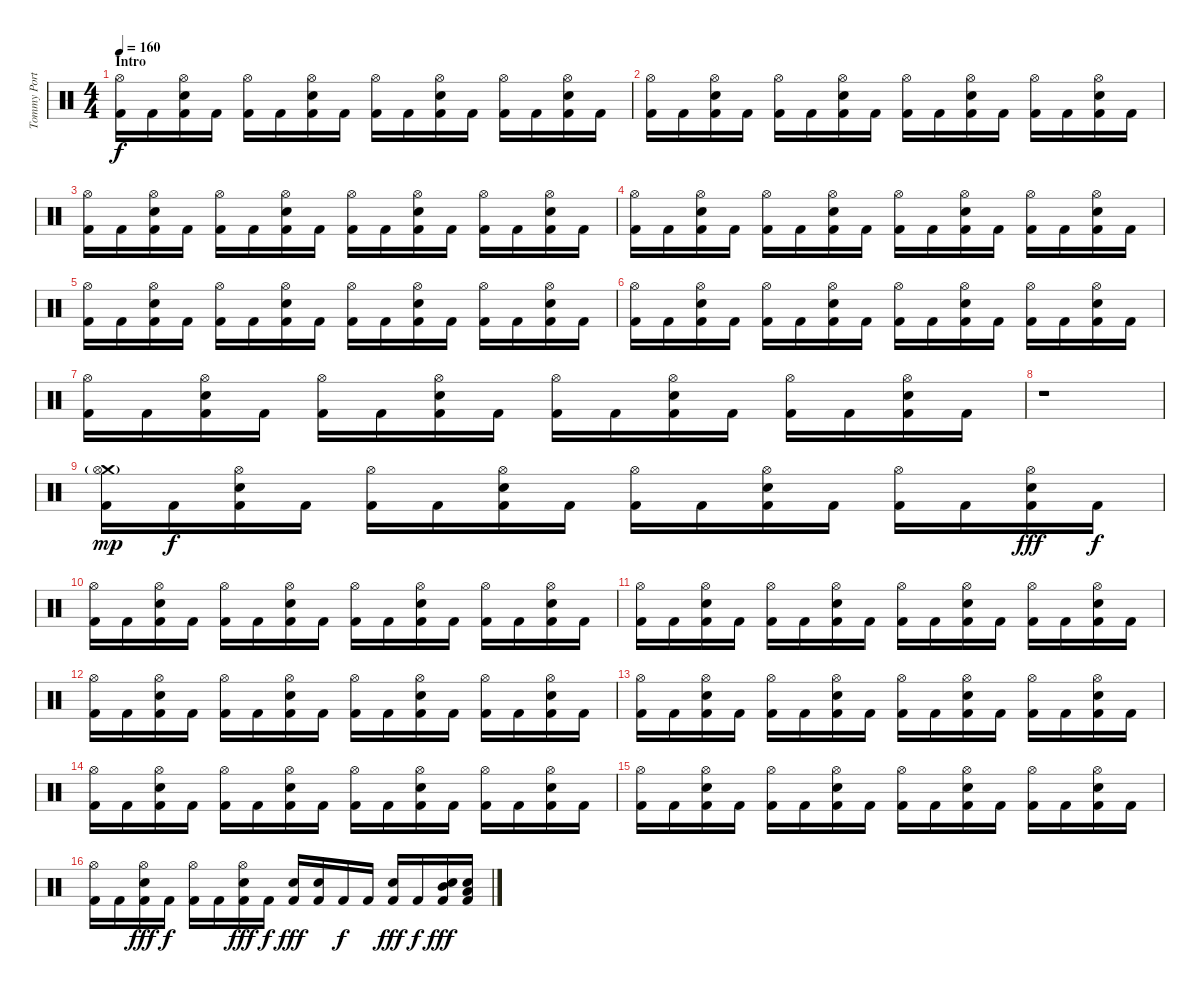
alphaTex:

\track ("Tommy Portino" "Tommy Port") {instrument percussion}
\staff {score}
\articulation defaults
\ts (4 4)
\section ("" "Intro")
\tempo 160
\clef neutral
\ks c
("Hi-Hat (open)" "Kick (hit) 2").16{dy f} "Kick (hit) 2".16 ("Hi-Hat (open)" "Snare (hit) 2" "Kick (hit) 2").16 "Kick (hit) 2".16 ("Hi-Hat (open)" "Kick (hit) 2").16 "Kick (hit) 2".16 ("Hi-Hat (open)" "Snare (hit) 2" "Kick (hit) 2").16 "Kick (hit) 2".16 ("Hi-Hat (open)" "Kick (hit) 2").16 "Kick (hit) 2".16 ("Hi-Hat (open)" "Snare (hit) 2" "Kick (hit) 2").16 "Kick (hit) 2".16 ("Hi-Hat (open)" "Kick (hit) 2").16 "Kick (hit) 2".16 ("Hi-Hat (open)" "Snare (hit) 2" "Kick (hit) 2").16 "Kick (hit) 2".16 |
("Hi-Hat (open)" "Kick (hit) 2").16 "Kick (hit) 2".16 ("Hi-Hat (open)" "Snare (hit) 2" "Kick (hit) 2").16 "Kick (hit) 2".16 ("Hi-Hat (open)" "Kick (hit) 2").16 "Kick (hit) 2".16 ("Hi-Hat (open)" "Snare (hit) 2" "Kick (hit) 2").16 "Kick (hit) 2".16 ("Hi-Hat (open)" "Kick (hit) 2").16 "Kick (hit) 2".16 ("Hi-Hat (open)" "Snare (hit) 2" "Kick (hit) 2").16 "Kick (hit) 2".16 ("Hi-Hat (open)" "Kick (hit) 2").16 "Kick (hit) 2".16 ("Hi-Hat (open)" "Snare (hit) 2" "Kick (hit) 2").16 "Kick (hit) 2".16 |
("Hi-Hat (open)" "Kick (hit) 2").16 "Kick (hit) 2".16 ("Hi-Hat (open)" "Snare (hit) 2" "Kick (hit) 2").16 "Kick (hit) 2".16 ("Hi-Hat (open)" "Kick (hit) 2").16 "Kick (hit) 2".16 ("Hi-Hat (open)" "Snare (hit) 2" "Kick (hit) 2").16 "Kick (hit) 2".16 ("Hi-Hat (open)" "Kick (hit) 2").16 "Kick (hit) 2".16 ("Hi-Hat (open)" "Snare (hit) 2" "Kick (hit) 2").16 "Kick (hit) 2".16 ("Hi-Hat (open)" "Kick (hit) 2").16 "Kick (hit) 2".16 ("Hi-Hat (open)" "Snare (hit) 2" "Kick (hit) 2").16 "Kick (hit) 2".16 |
("Hi-Hat (open)" "Kick (hit) 2").16 "Kick (hit) 2".16 ("Hi-Hat (open)" "Snare (hit) 2" "Kick (hit) 2").16 "Kick (hit) 2".16 ("Hi-Hat (open)" "Kick (hit) 2").16 "Kick (hit) 2".16 ("Hi-Hat (open)" "Snare (hit) 2" "Kick (hit) 2").16 "Kick (hit) 2".16 ("Hi-Hat (open)" "Kick (hit) 2").16 "Kick (hit) 2".16 ("Hi-Hat (open)" "Snare (hit) 2" "Kick (hit) 2").16 "Kick (hit) 2".16 ("Hi-Hat (open)" "Kick (hit) 2").16 "Kick (hit) 2".16 ("Hi-Hat (open)" "Snare (hit) 2" "Kick (hit) 2").16 "Kick (hit) 2".16 |
("Hi-Hat (open)" "Kick (hit) 2").16 "Kick (hit) 2".16 ("Hi-Hat (open)" "Snare (hit) 2" "Kick (hit) 2").16 "Kick (hit) 2".16 ("Hi-Hat (open)" "Kick (hit) 2").16 "Kick (hit) 2".16 ("Hi-Hat (open)" "Snare (hit) 2" "Kick (hit) 2").16 "Kick (hit) 2".16 ("Hi-Hat (open)" "Kick (hit) 2").16 "Kick (hit) 2".16 ("Hi-Hat (open)" "Snare (hit) 2" "Kick (hit) 2").16 "Kick (hit) 2".16 ("Hi-Hat (open)" "Kick (hit) 2").16 "Kick (hit) 2".16 ("Hi-Hat (open)" "Snare (hit) 2" "Kick (hit) 2").16 "Kick (hit) 2".16 |
("Hi-Hat (open)" "Kick (hit) 2").16 "Kick (hit) 2".16 ("Hi-Hat (open)" "Snare (hit) 2" "Kick (hit) 2").16 "Kick (hit) 2".16 ("Hi-Hat (open)" "Kick (hit) 2").16 "Kick (hit) 2".16 ("Hi-Hat (open)" "Snare (hit) 2" "Kick (hit) 2").16 "Kick (hit) 2".16 ("Hi-Hat (open)" "Kick (hit) 2").16 "Kick (hit) 2".16 ("Hi-Hat (open)" "Snare (hit) 2" "Kick (hit) 2").16 "Kick (hit) 2".16 ("Hi-Hat (open)" "Kick (hit) 2").16 "Kick (hit) 2".16 ("Hi-Hat (open)" "Snare (hit) 2" "Kick (hit) 2").16 "Kick (hit) 2".16 |
("Hi-Hat (open)" "Kick (hit) 2").16 "Kick (hit) 2".16 ("Hi-Hat (open)" "Snare (hit) 2" "Kick (hit) 2").16 "Kick (hit) 2".16 ("Hi-Hat (open)" "Kick (hit) 2").16 "Kick (hit) 2".16 ("Hi-Hat (open)" "Snare (hit) 2" "Kick (hit) 2").16 "Kick (hit) 2".16 ("Hi-Hat (open)" "Kick (hit) 2").16 "Kick (hit) 2".16 ("Hi-Hat (open)" "Snare (hit) 2" "Kick (hit) 2").16 "Kick (hit) 2".16 ("Hi-Hat (open)" "Kick (hit) 2").16 "Kick (hit) 2".16 ("Hi-Hat (open)" "Snare (hit) 2" "Kick (hit) 2").16 "Kick (hit) 2".16 |
r.1{volume 0} |
("Crash medium (hit)" "Hi-Hat (open)"{g} "Kick (hit) 2").16{dy mp volume 9} "Kick (hit) 2".16{dy f} ("Hi-Hat (open)" "Snare (hit) 2" "Kick (hit) 2").16 "Kick (hit) 2".16 ("Hi-Hat (open)" "Kick (hit) 2").16 "Kick (hit) 2".16 ("Hi-Hat (open)" "Snare (hit) 2" "Kick (hit) 2").16 "Kick (hit) 2".16 ("Hi-Hat (open)" "Kick (hit) 2").16 "Kick (hit) 2".16 ("Hi-Hat (open)" "Snare (hit) 2" "Kick (hit) 2").16 "Kick (hit) 2".16 ("Hi-Hat (open)" "Kick (hit) 2").16 "Kick (hit) 2".16 ("Hi-Hat (open)" "Snare (hit) 2" "Kick (hit) 2").16{dy fff} "Kick (hit) 2".16{dy f} |
("Hi-Hat (open)" "Kick (hit) 2").16 "Kick (hit) 2".16 ("Hi-Hat (open)" "Snare (hit) 2" "Kick (hit) 2").16 "Kick (hit) 2".16 ("Hi-Hat (open)" "Kick (hit) 2").16 "Kick (hit) 2".16 ("Hi-Hat (open)" "Snare (hit) 2" "Kick (hit) 2").16 "Kick (hit) 2".16 ("Hi-Hat (open)" "Kick (hit) 2").16 "Kick (hit) 2".16 ("Hi-Hat (open)" "Snare (hit) 2" "Kick (hit) 2").16 "Kick (hit) 2".16 ("Hi-Hat (open)" "Kick (hit) 2").16 "Kick (hit) 2".16 ("Hi-Hat (open)" "Snare (hit) 2" "Kick (hit) 2").16 "Kick (hit) 2".16 |
("Hi-Hat (open)" "Kick (hit) 2").16 "Kick (hit) 2".16 ("Hi-Hat (open)" "Snare (hit) 2" "Kick (hit) 2").16 "Kick (hit) 2".16 ("Hi-Hat (open)" "Kick (hit) 2").16 "Kick (hit) 2".16 ("Hi-Hat (open)" "Snare (hit) 2" "Kick (hit) 2").16 "Kick (hit) 2".16 ("Hi-Hat (open)" "Kick (hit) 2").16 "Kick (hit) 2".16 ("Hi-Hat (open)" "Snare (hit) 2" "Kick (hit) 2").16 "Kick (hit) 2".16 ("Hi-Hat (open)" "Kick (hit) 2").16 "Kick (hit) 2".16 ("Hi-Hat (open)" "Snare (hit) 2" "Kick (hit) 2").16 "Kick (hit) 2".16 |
("Hi-Hat (open)" "Kick (hit) 2").16 "Kick (hit) 2".16 ("Hi-Hat (open)" "Snare (hit) 2" "Kick (hit) 2").16 "Kick (hit) 2".16 ("Hi-Hat (open)" "Kick (hit) 2").16 "Kick (hit) 2".16 ("Hi-Hat (open)" "Snare (hit) 2" "Kick (hit) 2").16 "Kick (hit) 2".16 ("Hi-Hat (open)" "Kick (hit) 2").16 "Kick (hit) 2".16 ("Hi-Hat (open)" "Snare (hit) 2" "Kick (hit) 2").16 "Kick (hit) 2".16 ("Hi-Hat (open)" "Kick (hit) 2").16 "Kick (hit) 2".16 ("Hi-Hat (open)" "Snare (hit) 2" "Kick (hit) 2").16 "Kick (hit) 2".16 |
("Hi-Hat (open)" "Kick (hit) 2").16 "Kick (hit) 2".16 ("Hi-Hat (open)" "Snare (hit) 2" "Kick (hit) 2").16 "Kick (hit) 2".16 ("Hi-Hat (open)" "Kick (hit) 2").16 "Kick (hit) 2".16 ("Hi-Hat (open)" "Snare (hit) 2" "Kick (hit) 2").16 "Kick (hit) 2".16 ("Hi-Hat (open)" "Kick (hit) 2").16 "Kick (hit) 2".16 ("Hi-Hat (open)" "Snare (hit) 2" "Kick (hit) 2").16 "Kick (hit) 2".16 ("Hi-Hat (open)" "Kick (hit) 2").16 "Kick (hit) 2".16 ("Hi-Hat (open)" "Snare (hit) 2" "Kick (hit) 2").16 "Kick (hit) 2".16 |
("Hi-Hat (open)" "Kick (hit) 2").16 "Kick (hit) 2".16 ("Hi-Hat (open)" "Snare (hit) 2" "Kick (hit) 2").16 "Kick (hit) 2".16 ("Hi-Hat (open)" "Kick (hit) 2").16 "Kick (hit) 2".16 ("Hi-Hat (open)" "Snare (hit) 2" "Kick (hit) 2").16 "Kick (hit) 2".16 ("Hi-Hat (open)" "Kick (hit) 2").16 "Kick (hit) 2".16 ("Hi-Hat (open)" "Snare (hit) 2" "Kick (hit) 2").16 "Kick (hit) 2".16 ("Hi-Hat (open)" "Kick (hit) 2").16 "Kick (hit) 2".16 ("Hi-Hat (open)" "Snare (hit) 2" "Kick (hit) 2").16 "Kick (hit) 2".16 |
("Hi-Hat (open)" "Kick (hit) 2").16 "Kick (hit) 2".16 ("Hi-Hat (open)" "Snare (hit) 2" "Kick (hit) 2").16 "Kick (hit) 2".16 ("Hi-Hat (open)" "Kick (hit) 2").16 "Kick (hit) 2".16 ("Hi-Hat (open)" "Snare (hit) 2" "Kick (hit) 2").16 "Kick (hit) 2".16 ("Hi-Hat (open)" "Kick (hit) 2").16 "Kick (hit) 2".16 ("Hi-Hat (open)" "Snare (hit) 2" "Kick (hit) 2").16 "Kick (hit) 2".16 ("Hi-Hat (open)" "Kick (hit) 2").16 "Kick (hit) 2".16 ("Hi-Hat (open)" "Snare (hit) 2" "Kick (hit) 2").16 "Kick (hit) 2".16 |
("Hi-Hat (open)" "Kick (hit) 2").16 "Kick (hit) 2".16 ("Hi-Hat (open)" "Snare (hit) 2" "Kick (hit) 2").16{dy fff} "Kick (hit) 2".16{dy f} ("Hi-Hat (open)" "Kick (hit) 2").16 "Kick (hit) 2".16 ("Hi-Hat (open)" "Snare (hit) 2" "Kick (hit) 2").16{dy fff} "Kick (hit) 2".16{dy f} ("Snare (hit) 2" "Kick (hit) 2").16{dy fff} ("Snare (hit) 2" "Kick (hit) 2").16 "Kick (hit) 2".16{dy f} "Kick (hit) 2".16 ("Snare (hit) 2" "Kick (hit) 2").16{dy fff} "Kick (hit) 2".16{dy f} ("Mid Tom (hit)" "Snare (hit) 2" "Kick (hit) 2").16{dy fff} ("Low Tom (hit)" "Snare (hit) 2" "Kick (hit) 2").16
